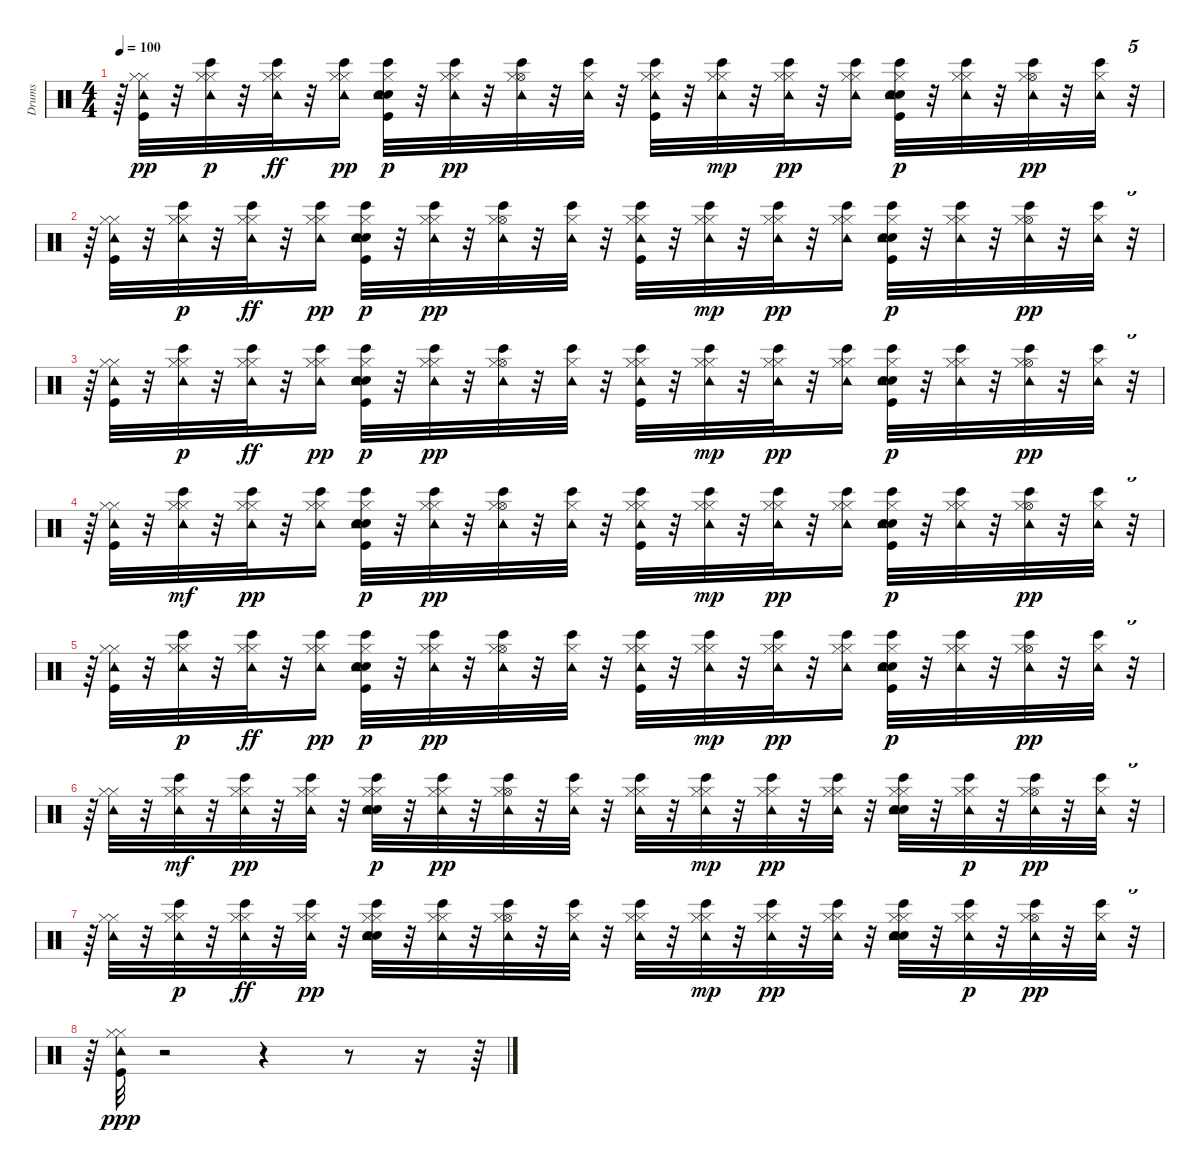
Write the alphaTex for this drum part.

\track ("Drums" "Drums") {instrument percussion}
\staff {score}
\articulation defaults
\ts (4 4)
\tempo 100
\clef neutral
\ks c
r.64{dy pp} ("Tambourine (hit)" "Kick (hit)" "Hi-Hat (closed)" "Hi-Hat (closed)").32 r.32 ("Bongo High (hit)" "Tambourine (hit)" "Hi-Hat (closed)" "Hi-Hat (closed)").32{dy p} r.32 ("Bongo High (hit)" "Tambourine (hit)" "Hi-Hat (closed)" "Hi-Hat (closed)").32{dy ff} r.32 ("Bongo High (hit)" "Tambourine (hit)" "Hi-Hat (closed)" "Hi-Hat (closed)").16{dy pp} ("Hand Clap (hit)" "Snare (hit) 2" "Bongo High (hit)" "Tambourine (hit)" "Kick (hit)" "Hi-Hat (closed)").32{dy p} r.32 ("Bongo High (hit)" "Tambourine (hit)" "Hi-Hat (closed)" "Hi-Hat (closed)").32{dy pp} r.32 ("Bongo High (hit)" "Tambourine (hit)" "Hi-Hat (open)" "Hi-Hat (closed)").32 r.32 ("Bongo High (hit)" "Tambourine (hit)" "Hi-Hat (closed)").32 r.32 ("Bongo High (hit)" "Tambourine (hit)" "Kick (hit)" "Hi-Hat (closed)" "Hi-Hat (closed)").32 r.32 ("Bongo High (hit)" "Tambourine (hit)" "Hi-Hat (closed)" "Hi-Hat (closed)").32{dy mp} r.32 ("Bongo High (hit)" "Tambourine (hit)" "Hi-Hat (closed)" "Hi-Hat (closed)").32{dy pp} r.32 ("Bongo High (hit)" "Tambourine (hit)" "Hi-Hat (closed)" "Hi-Hat (closed)").16 ("Hand Clap (hit)" "Snare (hit) 2" "Bongo High (hit)" "Tambourine (hit)" "Kick (hit)" "Hi-Hat (closed)").32{dy p} r.32 ("Bongo High (hit)" "Tambourine (hit)" "Hi-Hat (closed)" "Hi-Hat (closed)").32 r.32 ("Bongo High (hit)" "Tambourine (hit)" "Hi-Hat (open)" "Hi-Hat (closed)").32{dy pp} r.32 ("Bongo High (hit)" "Tambourine (hit)" "Hi-Hat (closed)").32 r.32{tu (5 4)} |
r.64 ("Tambourine (hit)" "Kick (hit)" "Hi-Hat (closed)" "Hi-Hat (closed)").32 r.32 ("Bongo High (hit)" "Tambourine (hit)" "Hi-Hat (closed)" "Hi-Hat (closed)").32{dy p} r.32 ("Bongo High (hit)" "Tambourine (hit)" "Hi-Hat (closed)" "Hi-Hat (closed)").32{dy ff} r.32 ("Bongo High (hit)" "Tambourine (hit)" "Hi-Hat (closed)" "Hi-Hat (closed)").16{dy pp} ("Hand Clap (hit)" "Snare (hit) 2" "Bongo High (hit)" "Tambourine (hit)" "Kick (hit)" "Hi-Hat (closed)").32{dy p} r.32 ("Bongo High (hit)" "Tambourine (hit)" "Hi-Hat (closed)" "Hi-Hat (closed)").32{dy pp} r.32 ("Bongo High (hit)" "Tambourine (hit)" "Hi-Hat (open)" "Hi-Hat (closed)").32 r.32 ("Bongo High (hit)" "Tambourine (hit)" "Hi-Hat (closed)").32 r.32 ("Bongo High (hit)" "Tambourine (hit)" "Kick (hit)" "Hi-Hat (closed)" "Hi-Hat (closed)").32 r.32 ("Bongo High (hit)" "Tambourine (hit)" "Hi-Hat (closed)" "Hi-Hat (closed)").32{dy mp} r.32 ("Bongo High (hit)" "Tambourine (hit)" "Hi-Hat (closed)" "Hi-Hat (closed)").32{dy pp} r.32 ("Bongo High (hit)" "Tambourine (hit)" "Hi-Hat (closed)" "Hi-Hat (closed)").16 ("Hand Clap (hit)" "Snare (hit) 2" "Bongo High (hit)" "Tambourine (hit)" "Kick (hit)" "Hi-Hat (closed)").32{dy p} r.32 ("Bongo High (hit)" "Tambourine (hit)" "Hi-Hat (closed)" "Hi-Hat (closed)").32 r.32 ("Bongo High (hit)" "Tambourine (hit)" "Hi-Hat (open)" "Hi-Hat (closed)").32{dy pp} r.32 ("Bongo High (hit)" "Tambourine (hit)" "Hi-Hat (closed)").32 r.32{tu (5 4)} |
r.64 ("Tambourine (hit)" "Kick (hit)" "Hi-Hat (closed)" "Hi-Hat (closed)").32 r.32 ("Bongo High (hit)" "Tambourine (hit)" "Hi-Hat (closed)" "Hi-Hat (closed)").32{dy p} r.32 ("Bongo High (hit)" "Tambourine (hit)" "Hi-Hat (closed)" "Hi-Hat (closed)").32{dy ff} r.32 ("Bongo High (hit)" "Tambourine (hit)" "Hi-Hat (closed)" "Hi-Hat (closed)").16{dy pp} ("Hand Clap (hit)" "Snare (hit) 2" "Bongo High (hit)" "Tambourine (hit)" "Kick (hit)" "Hi-Hat (closed)").32{dy p} r.32 ("Bongo High (hit)" "Tambourine (hit)" "Hi-Hat (closed)" "Hi-Hat (closed)").32{dy pp} r.32 ("Bongo High (hit)" "Tambourine (hit)" "Hi-Hat (open)" "Hi-Hat (closed)").32 r.32 ("Bongo High (hit)" "Tambourine (hit)" "Hi-Hat (closed)").32 r.32 ("Bongo High (hit)" "Tambourine (hit)" "Kick (hit)" "Hi-Hat (closed)" "Hi-Hat (closed)").32 r.32 ("Bongo High (hit)" "Tambourine (hit)" "Hi-Hat (closed)" "Hi-Hat (closed)").32{dy mp} r.32 ("Bongo High (hit)" "Tambourine (hit)" "Hi-Hat (closed)" "Hi-Hat (closed)").32{dy pp} r.32 ("Bongo High (hit)" "Tambourine (hit)" "Hi-Hat (closed)" "Hi-Hat (closed)").16 ("Hand Clap (hit)" "Snare (hit) 2" "Bongo High (hit)" "Tambourine (hit)" "Kick (hit)" "Hi-Hat (closed)").32{dy p} r.32 ("Bongo High (hit)" "Tambourine (hit)" "Hi-Hat (closed)" "Hi-Hat (closed)").32 r.32 ("Bongo High (hit)" "Tambourine (hit)" "Hi-Hat (open)" "Hi-Hat (closed)").32{dy pp} r.32 ("Bongo High (hit)" "Tambourine (hit)" "Hi-Hat (closed)").32 r.32{tu (5 4)} |
r.64 ("Tambourine (hit)" "Kick (hit)" "Hi-Hat (closed)" "Hi-Hat (closed)").32 r.32 ("Bongo High (hit)" "Tambourine (hit)" "Hi-Hat (closed)" "Hi-Hat (closed)").32{dy mf} r.32 ("Bongo High (hit)" "Tambourine (hit)" "Hi-Hat (closed)" "Hi-Hat (closed)").32{dy pp} r.32 ("Bongo High (hit)" "Tambourine (hit)" "Hi-Hat (closed)" "Hi-Hat (closed)").16 ("Hand Clap (hit)" "Snare (hit) 2" "Bongo High (hit)" "Tambourine (hit)" "Kick (hit)" "Hi-Hat (closed)").32{dy p} r.32 ("Bongo High (hit)" "Tambourine (hit)" "Hi-Hat (closed)" "Hi-Hat (closed)").32{dy pp} r.32 ("Bongo High (hit)" "Tambourine (hit)" "Hi-Hat (open)" "Hi-Hat (closed)").32 r.32 ("Bongo High (hit)" "Tambourine (hit)" "Hi-Hat (closed)").32 r.32 ("Bongo High (hit)" "Tambourine (hit)" "Kick (hit)" "Hi-Hat (closed)" "Hi-Hat (closed)").32 r.32 ("Bongo High (hit)" "Tambourine (hit)" "Hi-Hat (closed)" "Hi-Hat (closed)").32{dy mp} r.32 ("Bongo High (hit)" "Tambourine (hit)" "Hi-Hat (closed)" "Hi-Hat (closed)").32{dy pp} r.32 ("Bongo High (hit)" "Tambourine (hit)" "Hi-Hat (closed)" "Hi-Hat (closed)").16 ("Hand Clap (hit)" "Snare (hit) 2" "Bongo High (hit)" "Tambourine (hit)" "Kick (hit)" "Hi-Hat (closed)").32{dy p} r.32 ("Bongo High (hit)" "Tambourine (hit)" "Hi-Hat (closed)" "Hi-Hat (closed)").32 r.32 ("Bongo High (hit)" "Tambourine (hit)" "Hi-Hat (open)" "Hi-Hat (closed)").32{dy pp} r.32 ("Bongo High (hit)" "Tambourine (hit)" "Hi-Hat (closed)").32 r.32{tu (5 4)} |
r.64 ("Tambourine (hit)" "Kick (hit)" "Hi-Hat (closed)" "Hi-Hat (closed)").32 r.32 ("Bongo High (hit)" "Tambourine (hit)" "Hi-Hat (closed)" "Hi-Hat (closed)").32{dy p} r.32 ("Bongo High (hit)" "Tambourine (hit)" "Hi-Hat (closed)" "Hi-Hat (closed)").32{dy ff} r.32 ("Bongo High (hit)" "Tambourine (hit)" "Hi-Hat (closed)" "Hi-Hat (closed)").16{dy pp} ("Hand Clap (hit)" "Snare (hit) 2" "Bongo High (hit)" "Tambourine (hit)" "Kick (hit)" "Hi-Hat (closed)").32{dy p} r.32 ("Bongo High (hit)" "Tambourine (hit)" "Hi-Hat (closed)" "Hi-Hat (closed)").32{dy pp} r.32 ("Bongo High (hit)" "Tambourine (hit)" "Hi-Hat (open)" "Hi-Hat (closed)").32 r.32 ("Bongo High (hit)" "Tambourine (hit)" "Hi-Hat (closed)").32 r.32 ("Bongo High (hit)" "Tambourine (hit)" "Kick (hit)" "Hi-Hat (closed)" "Hi-Hat (closed)").32 r.32 ("Bongo High (hit)" "Tambourine (hit)" "Hi-Hat (closed)" "Hi-Hat (closed)").32{dy mp} r.32 ("Bongo High (hit)" "Tambourine (hit)" "Hi-Hat (closed)" "Hi-Hat (closed)").32{dy pp} r.32 ("Bongo High (hit)" "Tambourine (hit)" "Hi-Hat (closed)" "Hi-Hat (closed)").16 ("Hand Clap (hit)" "Snare (hit) 2" "Bongo High (hit)" "Tambourine (hit)" "Kick (hit)" "Hi-Hat (closed)").32{dy p} r.32 ("Bongo High (hit)" "Tambourine (hit)" "Hi-Hat (closed)" "Hi-Hat (closed)").32 r.32 ("Bongo High (hit)" "Tambourine (hit)" "Hi-Hat (open)" "Hi-Hat (closed)").32{dy pp} r.32 ("Bongo High (hit)" "Tambourine (hit)" "Hi-Hat (closed)").32 r.32{tu (5 4)} |
r.64 ("Tambourine (hit)" "Hi-Hat (closed)" "Hi-Hat (closed)").32 r.32 ("Bongo High (hit)" "Tambourine (hit)" "Hi-Hat (closed)" "Hi-Hat (closed)").32{dy mf} r.32 ("Bongo High (hit)" "Tambourine (hit)" "Hi-Hat (closed)" "Hi-Hat (closed)").32{dy pp} r.32 ("Bongo High (hit)" "Tambourine (hit)" "Hi-Hat (closed)" "Hi-Hat (closed)").32 r.32 ("Hand Clap (hit)" "Snare (hit) 2" "Bongo High (hit)" "Tambourine (hit)" "Hi-Hat (closed)" "Hi-Hat (closed)").32{dy p} r.32 ("Bongo High (hit)" "Tambourine (hit)" "Hi-Hat (closed)" "Hi-Hat (closed)").32{dy pp} r.32 ("Bongo High (hit)" "Tambourine (hit)" "Hi-Hat (open)" "Hi-Hat (closed)").32 r.32 ("Bongo High (hit)" "Tambourine (hit)" "Hi-Hat (closed)").32 r.32 ("Bongo High (hit)" "Tambourine (hit)" "Hi-Hat (closed)" "Hi-Hat (closed)").32 r.32 ("Bongo High (hit)" "Tambourine (hit)" "Hi-Hat (closed)" "Hi-Hat (closed)").32{dy mp} r.32 ("Bongo High (hit)" "Tambourine (hit)" "Hi-Hat (closed)" "Hi-Hat (closed)").32{dy pp} r.32 ("Bongo High (hit)" "Tambourine (hit)" "Hi-Hat (closed)" "Hi-Hat (closed)").32 r.32 ("Hand Clap (hit)" "Snare (hit) 2" "Bongo High (hit)" "Tambourine (hit)" "Hi-Hat (closed)" "Hi-Hat (closed)").32 r.32 ("Bongo High (hit)" "Tambourine (hit)" "Hi-Hat (closed)" "Hi-Hat (closed)").32{dy p} r.32 ("Bongo High (hit)" "Tambourine (hit)" "Hi-Hat (open)" "Hi-Hat (closed)").32{dy pp} r.32 ("Bongo High (hit)" "Tambourine (hit)" "Hi-Hat (closed)").32 r.32{tu (5 4)} |
r.64 ("Tambourine (hit)" "Hi-Hat (closed)" "Hi-Hat (closed)").32 r.32 ("Bongo High (hit)" "Tambourine (hit)" "Hi-Hat (closed)" "Hi-Hat (closed)").32{dy p} r.32 ("Bongo High (hit)" "Tambourine (hit)" "Hi-Hat (closed)" "Hi-Hat (closed)").32{dy ff} r.32 ("Bongo High (hit)" "Tambourine (hit)" "Hi-Hat (closed)" "Hi-Hat (closed)").32{dy pp} r.32 ("Hand Clap (hit)" "Snare (hit) 2" "Bongo High (hit)" "Tambourine (hit)" "Hi-Hat (closed)" "Hi-Hat (closed)").32 r.32 ("Bongo High (hit)" "Tambourine (hit)" "Hi-Hat (closed)" "Hi-Hat (closed)").32 r.32 ("Bongo High (hit)" "Tambourine (hit)" "Hi-Hat (open)" "Hi-Hat (closed)").32 r.32 ("Bongo High (hit)" "Tambourine (hit)" "Hi-Hat (closed)").32 r.32 ("Bongo High (hit)" "Tambourine (hit)" "Hi-Hat (closed)" "Hi-Hat (closed)").32 r.32 ("Bongo High (hit)" "Tambourine (hit)" "Hi-Hat (closed)" "Hi-Hat (closed)").32{dy mp} r.32 ("Bongo High (hit)" "Tambourine (hit)" "Hi-Hat (closed)" "Hi-Hat (closed)").32{dy pp} r.32 ("Bongo High (hit)" "Tambourine (hit)" "Hi-Hat (closed)" "Hi-Hat (closed)").32 r.32 ("Hand Clap (hit)" "Snare (hit) 2" "Bongo High (hit)" "Tambourine (hit)" "Hi-Hat (closed)" "Hi-Hat (closed)").32 r.32 ("Bongo High (hit)" "Tambourine (hit)" "Hi-Hat (closed)" "Hi-Hat (closed)").32{dy p} r.32 ("Bongo High (hit)" "Tambourine (hit)" "Hi-Hat (open)" "Hi-Hat (closed)").32{dy pp} r.32 ("Bongo High (hit)" "Tambourine (hit)" "Hi-Hat (closed)").32 r.32{tu (5 4)} |
r.64 ("Tambourine (hit)" "Kick (hit)" "Hi-Hat (closed)" "Hi-Hat (closed)").32{dy ppp} r.2 r.4 r.8 r.16 r.64
